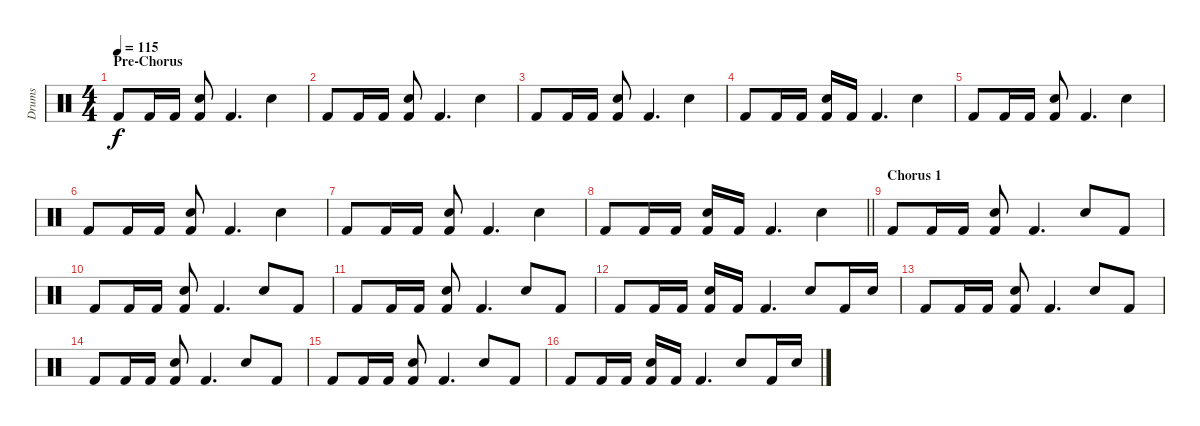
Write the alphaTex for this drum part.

\track ("Drums" "Drums") {instrument percussion}
\staff {score}
\articulation defaults
\ts (4 4)
\section ("" "Pre-Chorus")
\tempo 115
\clef neutral
\ks c "Kick (hit) 2".8{dy f} "Kick (hit) 2".16 "Kick (hit) 2".16
("Snare (hit) 2" "Kick (hit) 2").8 "Kick (hit) 2".4{d} "Snare (hit) 2".4 |
"Kick (hit) 2".8 "Kick (hit) 2".16 "Kick (hit) 2".16 ("Snare (hit) 2" "Kick (hit) 2").8 "Kick (hit) 2".4{d} "Snare (hit) 2".4 |
"Kick (hit) 2".8 "Kick (hit) 2".16 "Kick (hit) 2".16 ("Snare (hit) 2" "Kick (hit) 2").8 "Kick (hit) 2".4{d} "Snare (hit) 2".4 |
"Kick (hit) 2".8 "Kick (hit) 2".16 "Kick (hit) 2".16 ("Snare (hit) 2" "Kick (hit) 2").16 "Kick (hit) 2".16 "Kick (hit) 2".4{d} "Snare (hit) 2".4 |
"Kick (hit) 2".8 "Kick (hit) 2".16 "Kick (hit) 2".16 ("Snare (hit) 2" "Kick (hit) 2").8 "Kick (hit) 2".4{d} "Snare (hit) 2".4 |
"Kick (hit) 2".8 "Kick (hit) 2".16 "Kick (hit) 2".16 ("Snare (hit) 2" "Kick (hit) 2").8 "Kick (hit) 2".4{d} "Snare (hit) 2".4 |
"Kick (hit) 2".8 "Kick (hit) 2".16 "Kick (hit) 2".16 ("Snare (hit) 2" "Kick (hit) 2").8 "Kick (hit) 2".4{d} "Snare (hit) 2".4 |
\barLineRight lightlight "Kick (hit) 2".8 "Kick (hit) 2".16 "Kick (hit) 2".16
("Snare (hit) 2" "Kick (hit) 2").16 "Kick (hit) 2".16 "Kick (hit) 2".4{d} "Snare (hit) 2".4 |
\section ("" "Chorus 1")
"Kick (hit) 2".8 "Kick (hit) 2".16 "Kick (hit) 2".16 ("Electric Snare (hit)" "Kick (hit) 2").8 "Kick (hit) 2".4{d} "Electric Snare (hit)".8 "Kick (hit) 2".8 |
"Kick (hit) 2".8 "Kick (hit) 2".16 "Kick (hit) 2".16 ("Electric Snare (hit)" "Kick (hit) 2").8 "Kick (hit) 2".4{d} "Electric Snare (hit)".8 "Kick (hit) 2".8 |
"Kick (hit) 2".8 "Kick (hit) 2".16 "Kick (hit) 2".16 ("Electric Snare (hit)" "Kick (hit) 2").8 "Kick (hit) 2".4{d} "Electric Snare (hit)".8 "Kick (hit) 2".8 |
"Kick (hit) 2".8 "Kick (hit) 2".16 "Kick (hit) 2".16 ("Electric Snare (hit)" "Kick (hit) 2").16 "Kick (hit) 2".16 "Kick (hit) 2".4{d} "Electric Snare (hit)".8 "Kick (hit) 2".16 "Electric Snare (hit)".16 |
"Kick (hit) 2".8 "Kick (hit) 2".16 "Kick (hit) 2".16 ("Electric Snare (hit)" "Kick (hit) 2").8 "Kick (hit) 2".4{d} "Electric Snare (hit)".8 "Kick (hit) 2".8 |
"Kick (hit) 2".8 "Kick (hit) 2".16 "Kick (hit) 2".16 ("Electric Snare (hit)" "Kick (hit) 2").8 "Kick (hit) 2".4{d} "Electric Snare (hit)".8 "Kick (hit) 2".8 |
"Kick (hit) 2".8 "Kick (hit) 2".16 "Kick (hit) 2".16 ("Electric Snare (hit)" "Kick (hit) 2").8 "Kick (hit) 2".4{d} "Electric Snare (hit)".8 "Kick (hit) 2".8 |
"Kick (hit) 2".8 "Kick (hit) 2".16 "Kick (hit) 2".16 ("Electric Snare (hit)" "Kick (hit) 2").16 "Kick (hit) 2".16 "Kick (hit) 2".4{d} "Electric Snare (hit)".8 "Kick (hit) 2".16 "Electric Snare (hit)".16
